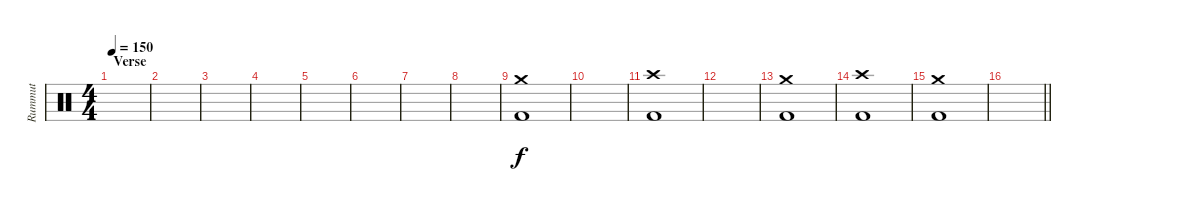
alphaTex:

\track ("Rummut" "Rummut") {instrument percussion}
\staff {score}
\articulation defaults
\ts (4 4)
\section ("" "Verse")
\tempo 150
\clef neutral
\ks c
|
|
|
|
|
|
|
|
("Crash medium (hit)" "Kick (hit) 2").1 |
|
("Crash high (hit)" "Kick (hit) 2").1 |
|
("Crash medium (hit)" "Kick (hit) 2").1 |
("Crash high (hit)" "Kick (hit) 2").1 |
("Crash medium (hit)" "Kick (hit) 2").1 |
\barLineRight lightlight
